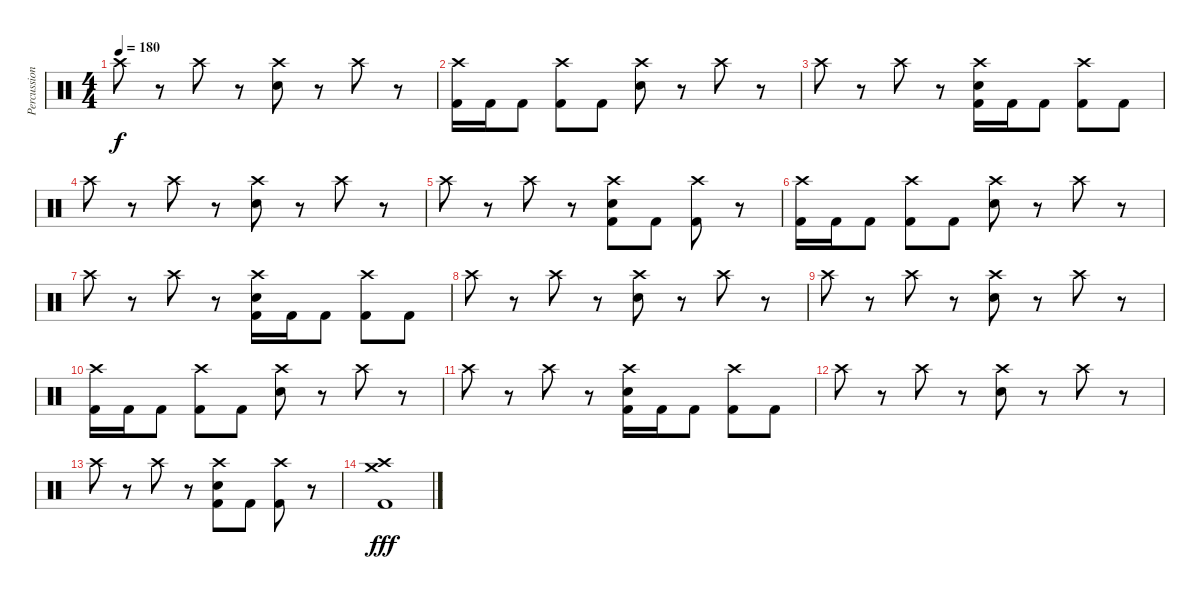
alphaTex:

\track ("Percussion" "Percussion") {instrument percussion}
\staff {score}
\articulation defaults
\ts (4 4)
\tempo 180
\clef neutral
\ks c "Crash high (hit)".8{dy f}
r.8 "Crash high (hit)".8 r.8 ("Crash high (hit)" "Snare (hit) 2").8 r.8 "Crash high (hit)".8 r.8 |
("Crash high (hit)" "Kick (hit) 2").16 "Kick (hit) 2".16 "Kick (hit) 2".8 ("Crash high (hit)" "Kick (hit) 2").8 "Kick (hit) 2".8 ("Crash high (hit)" "Snare (hit) 2").8 r.8 "Crash high (hit)".8 r.8 |
"Crash high (hit)".8 r.8 "Crash high (hit)".8 r.8 ("Crash high (hit)" "Snare (hit) 2" "Kick (hit) 2").16 "Kick (hit) 2".16 "Kick (hit) 2".8 ("Crash high (hit)" "Kick (hit) 2").8 "Kick (hit) 2".8 |
"Crash high (hit)".8 r.8 "Crash high (hit)".8 r.8 ("Crash high (hit)" "Snare (hit) 2").8 r.8 "Crash high (hit)".8 r.8 |
"Crash high (hit)".8 r.8 "Crash high (hit)".8 r.8 ("Crash high (hit)" "Snare (hit) 2" "Kick (hit) 2").8 "Kick (hit) 2".8 ("Crash high (hit)" "Kick (hit) 2").8 r.8 |
("Crash high (hit)" "Kick (hit) 2").16 "Kick (hit) 2".16 "Kick (hit) 2".8 ("Crash high (hit)" "Kick (hit) 2").8 "Kick (hit) 2".8 ("Crash high (hit)" "Snare (hit) 2").8 r.8 "Crash high (hit)".8 r.8 |
"Crash high (hit)".8 r.8 "Crash high (hit)".8 r.8 ("Crash high (hit)" "Snare (hit) 2" "Kick (hit) 2").16 "Kick (hit) 2".16 "Kick (hit) 2".8 ("Crash high (hit)" "Kick (hit) 2").8 "Kick (hit) 2".8 |
"Crash high (hit)".8 r.8 "Crash high (hit)".8 r.8 ("Crash high (hit)" "Snare (hit) 2").8 r.8 "Crash high (hit)".8 r.8 |
"Crash high (hit)".8 r.8 "Crash high (hit)".8 r.8 ("Crash high (hit)" "Snare (hit) 2").8 r.8 "Crash high (hit)".8 r.8 |
("Crash high (hit)" "Kick (hit) 2").16 "Kick (hit) 2".16 "Kick (hit) 2".8 ("Crash high (hit)" "Kick (hit) 2").8 "Kick (hit) 2".8 ("Crash high (hit)" "Snare (hit) 2").8 r.8 "Crash high (hit)".8 r.8 |
"Crash high (hit)".8 r.8 "Crash high (hit)".8 r.8 ("Crash high (hit)" "Snare (hit) 2" "Kick (hit) 2").16 "Kick (hit) 2".16 "Kick (hit) 2".8 ("Crash high (hit)" "Kick (hit) 2").8 "Kick (hit) 2".8 |
"Crash high (hit)".8 r.8 "Crash high (hit)".8 r.8 ("Crash high (hit)" "Snare (hit) 2").8 r.8 "Crash high (hit)".8 r.8 |
"Crash high (hit)".8 r.8 "Crash high (hit)".8 r.8 ("Crash high (hit)" "Snare (hit) 2" "Kick (hit) 2").8 "Kick (hit) 2".8 ("Crash high (hit)" "Kick (hit) 2").8 r.8 |
("Crash high (hit)" "Crash medium (hit)" "Kick (hit) 2").1{dy fff}
